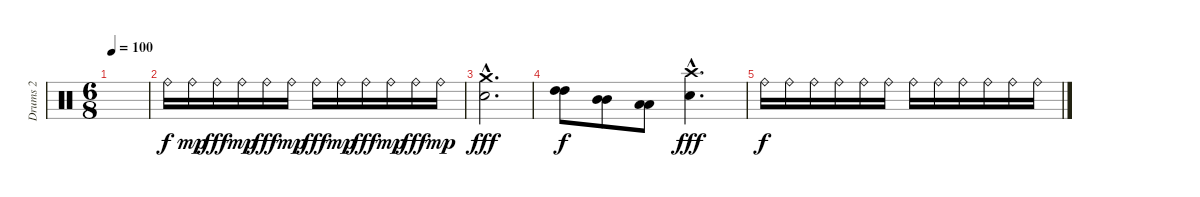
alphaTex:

\track ("Drums 2" "Drums 2") {instrument percussion}
\staff {score}
\articulation defaults
\ts (6 8)
\tempo 100
\clef neutral
\ks c
|
"Ride (bell)".16{volume 3 balance 16} "Ride (bell)".16{dy mp} "Ride (bell)".16{dy fff balance 0} "Ride (bell)".16{dy mp} "Ride (bell)".16{dy fff balance 16} "Ride (bell)".16{dy mp} "Ride (bell)".16{dy fff balance 0} "Ride (bell)".16{dy mp} "Ride (bell)".16{dy fff balance 16} "Ride (bell)".16{dy mp} "Ride (bell)".16{dy fff balance 0} "Ride (bell)".16{dy mp} |
("Snare (hit) 2"{hac} "Crash medium (hit)"{hac}).2{d dy fff volume 12 balance 11} |
("High Tom (hit)" "High Tom (hit)").8{bd 480 dy f} ("Mid Tom (hit)" "Mid Tom (hit)").8{bd 480} ("Low Tom (hit)" "Low Tom (hit)").8{bd 480} ("Snare (hit) 2"{hac} "Crash high (hit)"{hac}).4{d dy fff} |
"Ride (bell)".16{dy f volume 0 balance 0} "Ride (bell)".16{volume 12 balance 16} "Ride (bell)".16 "Ride (bell)".16 "Ride (bell)".16 "Ride (bell)".16 "Ride (bell)".16 "Ride (bell)".16 "Ride (bell)".16 "Ride (bell)".16 "Ride (bell)".16 "Ride (bell)".16
